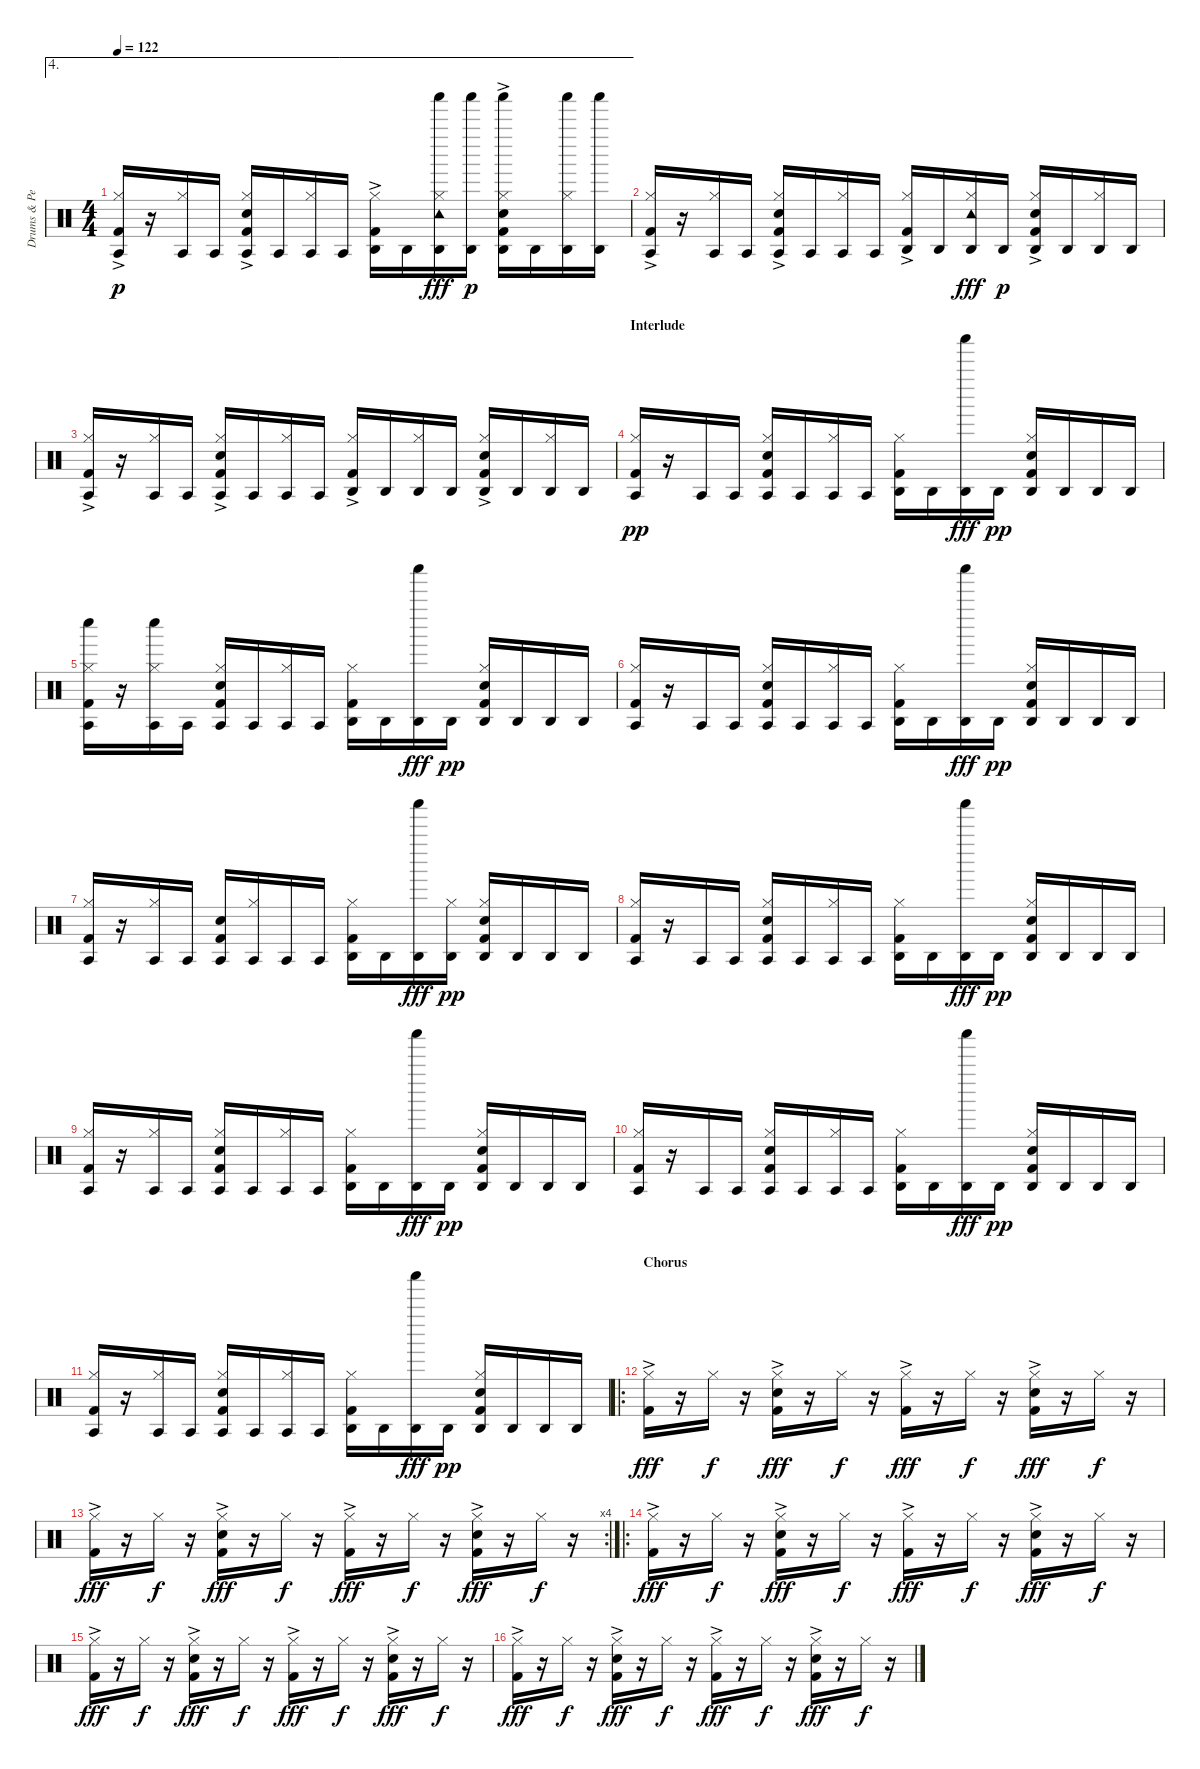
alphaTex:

\track ("Drums & Percussion" "Drums & Pe") {instrument percussion}
\staff {score}
\articulation defaults
\ae 4
\ts (4 4)
\tempo 122
\clef neutral
\ks c
("Hi-Hat (closed)"{ac} "Agogo tow (hit)" "Kick (hit) 2").16{dy p} r.16 ("Hi-Hat (closed)" "Agogo tow (hit)").16 "Agogo tow (hit)".16 ("Hi-Hat (closed)"{ac} "Agogo tow (hit)" "Electric Snare (hit)" "Kick (hit) 2").16 "Agogo tow (hit)".16 ("Hi-Hat (closed)" "Agogo tow (hit)").16 "Agogo tow (hit)".16 ("Hi-Hat (closed)"{ac} "Agogo high (hit)" "Kick (hit) 2").16 "Agogo high (hit)".16 ("Shaker (hit)" "Hi-Hat (closed)" "Agogo high (hit)" "Tambourine (hit)").16{dy fff} ("Shaker (hit)" "Agogo high (hit)").16{dy p} ("Shaker (hit)" "Hi-Hat (closed)"{ac} "Agogo high (hit)" "Electric Snare (hit)" "Kick (hit) 2").16 "Agogo high (hit)".16 ("Shaker (hit)" "Hi-Hat (closed)" "Agogo high (hit)").16 ("Shaker (hit)" "Agogo high (hit)").16 |
("Hi-Hat (closed)"{ac} "Agogo tow (hit)" "Kick (hit) 2").16 r.16 ("Hi-Hat (closed)" "Agogo tow (hit)").16 "Agogo tow (hit)".16 ("Hi-Hat (closed)"{ac} "Agogo tow (hit)" "Electric Snare (hit)" "Kick (hit) 2").16 "Agogo tow (hit)".16 ("Hi-Hat (closed)" "Agogo tow (hit)").16 "Agogo tow (hit)".16 ("Hi-Hat (closed)"{ac} "Agogo high (hit)" "Kick (hit) 2").16 "Agogo high (hit)".16 ("Hi-Hat (closed)" "Agogo high (hit)" "Tambourine (hit)").16{dy fff} "Agogo high (hit)".16{dy p} ("Hi-Hat (closed)"{ac} "Agogo high (hit)" "Electric Snare (hit)" "Kick (hit) 2").16 "Agogo high (hit)".16 ("Hi-Hat (closed)" "Agogo high (hit)").16 "Agogo high (hit)".16 |
("Hi-Hat (closed)"{ac} "Agogo tow (hit)" "Kick (hit) 2").16 r.16 ("Hi-Hat (closed)" "Agogo tow (hit)").16 "Agogo tow (hit)".16 ("Hi-Hat (closed)"{ac} "Agogo tow (hit)" "Electric Snare (hit)" "Kick (hit) 2").16 "Agogo tow (hit)".16 ("Hi-Hat (closed)" "Agogo tow (hit)").16 "Agogo tow (hit)".16 ("Hi-Hat (closed)"{ac} "Agogo high (hit)" "Kick (hit) 2").16 "Agogo high (hit)".16 ("Hi-Hat (closed)" "Agogo high (hit)").16 "Agogo high (hit)".16 ("Hi-Hat (closed)"{ac} "Agogo high (hit)" "Electric Snare (hit)" "Kick (hit) 2").16 "Agogo high (hit)".16 ("Hi-Hat (closed)" "Agogo high (hit)").16 "Agogo high (hit)".16 |
\section ("" "Interlude")
("Hi-Hat (closed)" "Agogo tow (hit)" "Kick (hit) 2").16{dy pp} r.16 "Agogo tow (hit)".16 "Agogo tow (hit)".16 ("Hi-Hat (closed)" "Agogo tow (hit)" "Electric Snare (hit)" "Kick (hit) 2").16 "Agogo tow (hit)".16 ("Hi-Hat (closed)" "Agogo tow (hit)").16 "Agogo tow (hit)".16 ("Hi-Hat (closed)" "Agogo high (hit)" "Kick (hit) 2").16 "Agogo high (hit)".16 ("Agogo high (hit)" "Shaker (hit)").16{dy fff} "Agogo high (hit)".16{dy pp} ("Hi-Hat (closed)" "Agogo high (hit)" "Electric Snare (hit)" "Kick (hit) 2").16 "Agogo high (hit)".16 "Agogo high (hit)".16 "Agogo high (hit)".16 |
("Hi-Hat (closed)" "Whistle low (hit)" "Agogo tow (hit)" "Kick (hit) 2").16 r.16 ("Hi-Hat (closed)" "Whistle low (hit)" "Agogo tow (hit)").16 "Agogo tow (hit)".16 ("Hi-Hat (closed)" "Agogo tow (hit)" "Electric Snare (hit)" "Kick (hit) 2").16 "Agogo tow (hit)".16 ("Hi-Hat (closed)" "Agogo tow (hit)").16 "Agogo tow (hit)".16 ("Hi-Hat (closed)" "Agogo high (hit)" "Kick (hit) 2").16 "Agogo high (hit)".16 ("Agogo high (hit)" "Shaker (hit)").16{dy fff} "Agogo high (hit)".16{dy pp} ("Hi-Hat (closed)" "Agogo high (hit)" "Electric Snare (hit)" "Kick (hit) 2").16 "Agogo high (hit)".16 "Agogo high (hit)".16 "Agogo high (hit)".16 |
("Hi-Hat (closed)" "Agogo tow (hit)" "Kick (hit) 2").16 r.16 "Agogo tow (hit)".16 "Agogo tow (hit)".16 ("Hi-Hat (closed)" "Agogo tow (hit)" "Electric Snare (hit)" "Kick (hit) 2").16 "Agogo tow (hit)".16 ("Hi-Hat (closed)" "Agogo tow (hit)").16 "Agogo tow (hit)".16 ("Hi-Hat (closed)" "Agogo high (hit)" "Kick (hit) 2").16 "Agogo high (hit)".16 ("Agogo high (hit)" "Shaker (hit)").16{dy fff} "Agogo high (hit)".16{dy pp} ("Hi-Hat (closed)" "Agogo high (hit)" "Electric Snare (hit)" "Kick (hit) 2").16 "Agogo high (hit)".16 "Agogo high (hit)".16 "Agogo high (hit)".16 |
("Hi-Hat (closed)" "Agogo tow (hit)" "Kick (hit) 2").16 r.16 ("Hi-Hat (closed)" "Agogo tow (hit)").16 "Agogo tow (hit)".16 ("Agogo tow (hit)" "Electric Snare (hit)" "Kick (hit) 2").16 ("Hi-Hat (closed)" "Agogo tow (hit)").16 "Agogo tow (hit)".16 "Agogo tow (hit)".16 ("Hi-Hat (closed)" "Agogo high (hit)" "Kick (hit) 2").16 "Agogo high (hit)".16 ("Agogo high (hit)" "Shaker (hit)").16{dy fff} ("Hi-Hat (closed)" "Agogo high (hit)").16{dy pp} ("Hi-Hat (closed)" "Agogo high (hit)" "Electric Snare (hit)" "Kick (hit) 2").16 "Agogo high (hit)".16 "Agogo high (hit)".16 "Agogo high (hit)".16 |
("Hi-Hat (closed)" "Agogo tow (hit)" "Kick (hit) 2").16 r.16 "Agogo tow (hit)".16 "Agogo tow (hit)".16 ("Hi-Hat (closed)" "Agogo tow (hit)" "Electric Snare (hit)" "Kick (hit) 2").16 "Agogo tow (hit)".16 ("Hi-Hat (closed)" "Agogo tow (hit)").16 "Agogo tow (hit)".16 ("Hi-Hat (closed)" "Agogo high (hit)" "Kick (hit) 2").16 "Agogo high (hit)".16 ("Agogo high (hit)" "Shaker (hit)").16{dy fff} "Agogo high (hit)".16{dy pp} ("Hi-Hat (closed)" "Agogo high (hit)" "Electric Snare (hit)" "Kick (hit) 2").16 "Agogo high (hit)".16 "Agogo high (hit)".16 "Agogo high (hit)".16 |
("Hi-Hat (closed)" "Agogo tow (hit)" "Kick (hit) 2").16 r.16 ("Hi-Hat (closed)" "Agogo tow (hit)").16 "Agogo tow (hit)".16 ("Hi-Hat (closed)" "Agogo tow (hit)" "Electric Snare (hit)" "Kick (hit) 2").16 "Agogo tow (hit)".16 ("Hi-Hat (closed)" "Agogo tow (hit)").16 "Agogo tow (hit)".16 ("Hi-Hat (closed)" "Agogo high (hit)" "Kick (hit) 2").16 "Agogo high (hit)".16 ("Agogo high (hit)" "Shaker (hit)").16{dy fff} "Agogo high (hit)".16{dy pp} ("Hi-Hat (closed)" "Agogo high (hit)" "Electric Snare (hit)" "Kick (hit) 2").16 "Agogo high (hit)".16 "Agogo high (hit)".16 "Agogo high (hit)".16 |
("Hi-Hat (closed)" "Agogo tow (hit)" "Kick (hit) 2").16 r.16 "Agogo tow (hit)".16 "Agogo tow (hit)".16 ("Hi-Hat (closed)" "Agogo tow (hit)" "Electric Snare (hit)" "Kick (hit) 2").16 "Agogo tow (hit)".16 ("Hi-Hat (closed)" "Agogo tow (hit)").16 "Agogo tow (hit)".16 ("Hi-Hat (closed)" "Agogo high (hit)" "Kick (hit) 2").16 "Agogo high (hit)".16 ("Agogo high (hit)" "Shaker (hit)").16{dy fff} "Agogo high (hit)".16{dy pp} ("Hi-Hat (closed)" "Agogo high (hit)" "Electric Snare (hit)" "Kick (hit) 2").16 "Agogo high (hit)".16 "Agogo high (hit)".16 "Agogo high (hit)".16 |
("Hi-Hat (closed)" "Agogo tow (hit)" "Kick (hit) 2").16 r.16 ("Hi-Hat (closed)" "Agogo tow (hit)").16 "Agogo tow (hit)".16 ("Hi-Hat (closed)" "Agogo tow (hit)" "Electric Snare (hit)" "Kick (hit) 2").16 "Agogo tow (hit)".16 ("Hi-Hat (closed)" "Agogo tow (hit)").16 "Agogo tow (hit)".16 ("Hi-Hat (closed)" "Agogo high (hit)" "Kick (hit) 2").16 "Agogo high (hit)".16 ("Agogo high (hit)" "Shaker (hit)").16{dy fff} "Agogo high (hit)".16{dy pp} ("Hi-Hat (closed)" "Agogo high (hit)" "Electric Snare (hit)" "Kick (hit) 2").16 "Agogo high (hit)".16 "Agogo high (hit)".16 "Agogo high (hit)".16 |
\ro
\section ("" "Chorus")
("Hi-Hat (closed)"{ac} "Kick (hit) 2").16{dy fff} r.16 "Hi-Hat (closed)".16{dy f} r.16 ("Hi-Hat (closed)"{ac} "Electric Snare (hit)" "Kick (hit) 2").16{dy fff} r.16 "Hi-Hat (closed)".16{dy f} r.16 ("Hi-Hat (closed)"{ac} "Kick (hit) 2").16{dy fff} r.16 "Hi-Hat (closed)".16{dy f} r.16 ("Hi-Hat (closed)"{ac} "Electric Snare (hit)" "Kick (hit) 2").16{dy fff} r.16 "Hi-Hat (closed)".16{dy f} r.16 |
\rc 4
("Hi-Hat (closed)"{ac} "Kick (hit) 2").16{dy fff} r.16 "Hi-Hat (closed)".16{dy f} r.16 ("Hi-Hat (closed)"{ac} "Electric Snare (hit)" "Kick (hit) 2").16{dy fff} r.16 "Hi-Hat (closed)".16{dy f} r.16 ("Hi-Hat (closed)"{ac} "Kick (hit) 2").16{dy fff} r.16 "Hi-Hat (closed)".16{dy f} r.16 ("Hi-Hat (closed)"{ac} "Electric Snare (hit)" "Kick (hit) 2").16{dy fff} r.16 "Hi-Hat (closed)".16{dy f} r.16 |
\ro
("Hi-Hat (closed)"{ac} "Kick (hit) 2").16{dy fff} r.16 "Hi-Hat (closed)".16{dy f} r.16 ("Hi-Hat (closed)"{ac} "Electric Snare (hit)" "Kick (hit) 2").16{dy fff} r.16 "Hi-Hat (closed)".16{dy f} r.16 ("Hi-Hat (closed)"{ac} "Kick (hit) 2").16{dy fff} r.16 "Hi-Hat (closed)".16{dy f} r.16 ("Hi-Hat (closed)"{ac} "Electric Snare (hit)" "Kick (hit) 2").16{dy fff} r.16 "Hi-Hat (closed)".16{dy f} r.16 |
("Hi-Hat (closed)"{ac} "Kick (hit) 2").16{dy fff} r.16 "Hi-Hat (closed)".16{dy f} r.16 ("Hi-Hat (closed)"{ac} "Electric Snare (hit)" "Kick (hit) 2").16{dy fff} r.16 "Hi-Hat (closed)".16{dy f} r.16 ("Hi-Hat (closed)"{ac} "Kick (hit) 2").16{dy fff} r.16 "Hi-Hat (closed)".16{dy f} r.16 ("Hi-Hat (closed)"{ac} "Electric Snare (hit)" "Kick (hit) 2").16{dy fff} r.16 "Hi-Hat (closed)".16{dy f} r.16 |
("Hi-Hat (closed)"{ac} "Kick (hit) 2").16{dy fff} r.16 "Hi-Hat (closed)".16{dy f} r.16 ("Hi-Hat (closed)"{ac} "Electric Snare (hit)" "Kick (hit) 2").16{dy fff} r.16 "Hi-Hat (closed)".16{dy f} r.16 ("Hi-Hat (closed)"{ac} "Kick (hit) 2").16{dy fff} r.16 "Hi-Hat (closed)".16{dy f} r.16 ("Hi-Hat (closed)"{ac} "Electric Snare (hit)" "Kick (hit) 2").16{dy fff} r.16 "Hi-Hat (closed)".16{dy f} r.16
